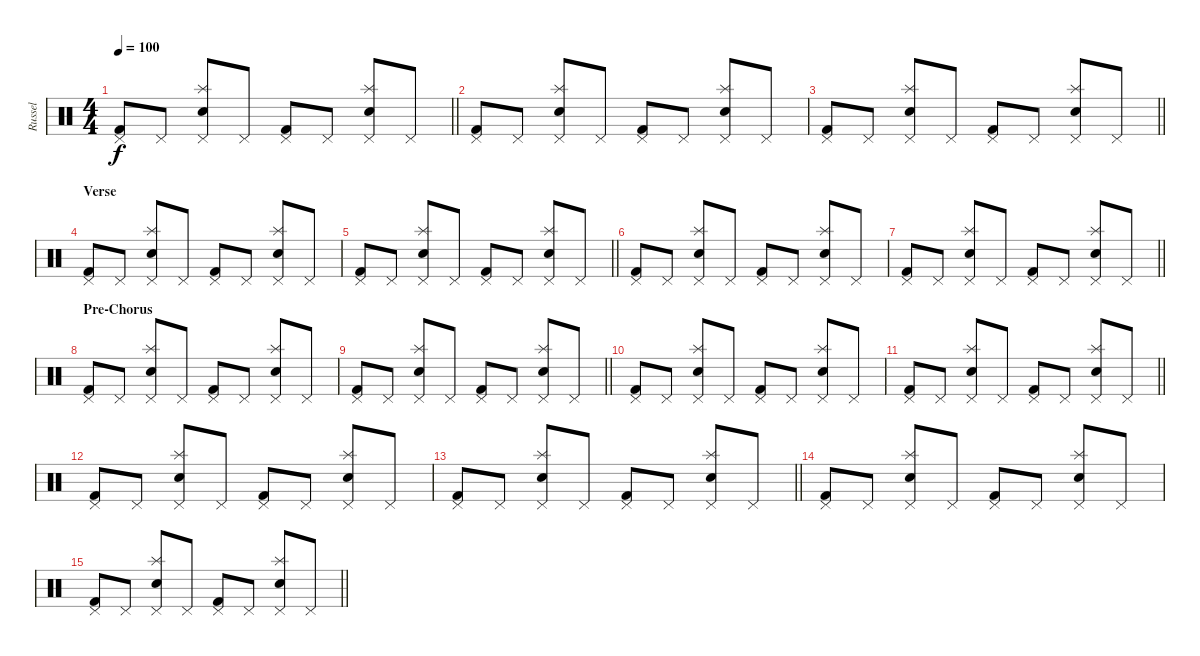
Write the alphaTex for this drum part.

\track ("Russel" "Russel") {instrument percussion}
\staff {score}
\articulation defaults
\ts (4 4)
\tempo 100
\clef neutral
\barLineRight lightlight
\ks c
("Pedal Hi-Hat (hit)" "Kick (hit) 2").8{dy f} "Pedal Hi-Hat (hit)".8 ("Splash (hit)" "Pedal Hi-Hat (hit)" "Electric Snare (hit)").8 "Pedal Hi-Hat (hit)".8 ("Pedal Hi-Hat (hit)" "Kick (hit) 2").8 "Pedal Hi-Hat (hit)".8 ("Splash (hit)" "Pedal Hi-Hat (hit)" "Electric Snare (hit)").8 "Pedal Hi-Hat (hit)".8 |
("Pedal Hi-Hat (hit)" "Kick (hit) 2").8 "Pedal Hi-Hat (hit)".8 ("Splash (hit)" "Pedal Hi-Hat (hit)" "Electric Snare (hit)").8 "Pedal Hi-Hat (hit)".8 ("Pedal Hi-Hat (hit)" "Kick (hit) 2").8 "Pedal Hi-Hat (hit)".8 ("Splash (hit)" "Pedal Hi-Hat (hit)" "Electric Snare (hit)").8 "Pedal Hi-Hat (hit)".8 |
\barLineRight lightlight
("Pedal Hi-Hat (hit)" "Kick (hit) 2").8 "Pedal Hi-Hat (hit)".8 ("Splash (hit)" "Pedal Hi-Hat (hit)" "Electric Snare (hit)").8 "Pedal Hi-Hat (hit)".8 ("Pedal Hi-Hat (hit)" "Kick (hit) 2").8 "Pedal Hi-Hat (hit)".8 ("Splash (hit)" "Pedal Hi-Hat (hit)" "Electric Snare (hit)").8 "Pedal Hi-Hat (hit)".8 |
\section ("" "Verse")
("Pedal Hi-Hat (hit)" "Kick (hit) 2").8 "Pedal Hi-Hat (hit)".8 ("Splash (hit)" "Pedal Hi-Hat (hit)" "Electric Snare (hit)").8 "Pedal Hi-Hat (hit)".8 ("Pedal Hi-Hat (hit)" "Kick (hit) 2").8 "Pedal Hi-Hat (hit)".8 ("Splash (hit)" "Pedal Hi-Hat (hit)" "Electric Snare (hit)").8 "Pedal Hi-Hat (hit)".8 |
\barLineRight lightlight
("Pedal Hi-Hat (hit)" "Kick (hit) 2").8 "Pedal Hi-Hat (hit)".8 ("Splash (hit)" "Pedal Hi-Hat (hit)" "Electric Snare (hit)").8 "Pedal Hi-Hat (hit)".8 ("Pedal Hi-Hat (hit)" "Kick (hit) 2").8 "Pedal Hi-Hat (hit)".8 ("Splash (hit)" "Pedal Hi-Hat (hit)" "Electric Snare (hit)").8 "Pedal Hi-Hat (hit)".8 |
("Pedal Hi-Hat (hit)" "Kick (hit) 2").8 "Pedal Hi-Hat (hit)".8 ("Splash (hit)" "Pedal Hi-Hat (hit)" "Electric Snare (hit)").8 "Pedal Hi-Hat (hit)".8 ("Pedal Hi-Hat (hit)" "Kick (hit) 2").8 "Pedal Hi-Hat (hit)".8 ("Splash (hit)" "Pedal Hi-Hat (hit)" "Electric Snare (hit)").8 "Pedal Hi-Hat (hit)".8 |
\barLineRight lightlight
("Pedal Hi-Hat (hit)" "Kick (hit) 2").8 "Pedal Hi-Hat (hit)".8 ("Splash (hit)" "Pedal Hi-Hat (hit)" "Electric Snare (hit)").8 "Pedal Hi-Hat (hit)".8 ("Pedal Hi-Hat (hit)" "Kick (hit) 2").8 "Pedal Hi-Hat (hit)".8 ("Splash (hit)" "Pedal Hi-Hat (hit)" "Electric Snare (hit)").8 "Pedal Hi-Hat (hit)".8 |
\section ("" "Pre-Chorus")
("Pedal Hi-Hat (hit)" "Kick (hit) 2").8 "Pedal Hi-Hat (hit)".8 ("Splash (hit)" "Pedal Hi-Hat (hit)" "Electric Snare (hit)").8 "Pedal Hi-Hat (hit)".8 ("Pedal Hi-Hat (hit)" "Kick (hit) 2").8 "Pedal Hi-Hat (hit)".8 ("Splash (hit)" "Pedal Hi-Hat (hit)" "Electric Snare (hit)").8 "Pedal Hi-Hat (hit)".8 |
\barLineRight lightlight
("Pedal Hi-Hat (hit)" "Kick (hit) 2").8 "Pedal Hi-Hat (hit)".8 ("Splash (hit)" "Pedal Hi-Hat (hit)" "Electric Snare (hit)").8 "Pedal Hi-Hat (hit)".8 ("Pedal Hi-Hat (hit)" "Kick (hit) 2").8 "Pedal Hi-Hat (hit)".8 ("Splash (hit)" "Pedal Hi-Hat (hit)" "Electric Snare (hit)").8 "Pedal Hi-Hat (hit)".8 |
("Pedal Hi-Hat (hit)" "Kick (hit) 2").8 "Pedal Hi-Hat (hit)".8 ("Splash (hit)" "Pedal Hi-Hat (hit)" "Electric Snare (hit)").8 "Pedal Hi-Hat (hit)".8 ("Pedal Hi-Hat (hit)" "Kick (hit) 2").8 "Pedal Hi-Hat (hit)".8 ("Splash (hit)" "Pedal Hi-Hat (hit)" "Electric Snare (hit)").8 "Pedal Hi-Hat (hit)".8 |
\barLineRight lightlight
("Pedal Hi-Hat (hit)" "Kick (hit) 2").8 "Pedal Hi-Hat (hit)".8 ("Splash (hit)" "Pedal Hi-Hat (hit)" "Electric Snare (hit)").8 "Pedal Hi-Hat (hit)".8 ("Pedal Hi-Hat (hit)" "Kick (hit) 2").8 "Pedal Hi-Hat (hit)".8 ("Splash (hit)" "Pedal Hi-Hat (hit)" "Electric Snare (hit)").8 "Pedal Hi-Hat (hit)".8 |
("Pedal Hi-Hat (hit)" "Kick (hit) 2").8 "Pedal Hi-Hat (hit)".8 ("Splash (hit)" "Pedal Hi-Hat (hit)" "Electric Snare (hit)").8 "Pedal Hi-Hat (hit)".8 ("Pedal Hi-Hat (hit)" "Kick (hit) 2").8 "Pedal Hi-Hat (hit)".8 ("Splash (hit)" "Pedal Hi-Hat (hit)" "Electric Snare (hit)").8 "Pedal Hi-Hat (hit)".8 |
\barLineRight lightlight
("Pedal Hi-Hat (hit)" "Kick (hit) 2").8 "Pedal Hi-Hat (hit)".8 ("Splash (hit)" "Pedal Hi-Hat (hit)" "Electric Snare (hit)").8 "Pedal Hi-Hat (hit)".8 ("Pedal Hi-Hat (hit)" "Kick (hit) 2").8 "Pedal Hi-Hat (hit)".8 ("Splash (hit)" "Pedal Hi-Hat (hit)" "Electric Snare (hit)").8 "Pedal Hi-Hat (hit)".8 |
("Pedal Hi-Hat (hit)" "Kick (hit) 2").8 "Pedal Hi-Hat (hit)".8 ("Splash (hit)" "Pedal Hi-Hat (hit)" "Electric Snare (hit)").8 "Pedal Hi-Hat (hit)".8 ("Pedal Hi-Hat (hit)" "Kick (hit) 2").8 "Pedal Hi-Hat (hit)".8 ("Splash (hit)" "Pedal Hi-Hat (hit)" "Electric Snare (hit)").8 "Pedal Hi-Hat (hit)".8 |
\barLineRight lightlight
("Pedal Hi-Hat (hit)" "Kick (hit) 2").8 "Pedal Hi-Hat (hit)".8 ("Splash (hit)" "Pedal Hi-Hat (hit)" "Electric Snare (hit)").8 "Pedal Hi-Hat (hit)".8 ("Pedal Hi-Hat (hit)" "Kick (hit) 2").8 "Pedal Hi-Hat (hit)".8 ("Splash (hit)" "Pedal Hi-Hat (hit)" "Electric Snare (hit)").8 "Pedal Hi-Hat (hit)".8
